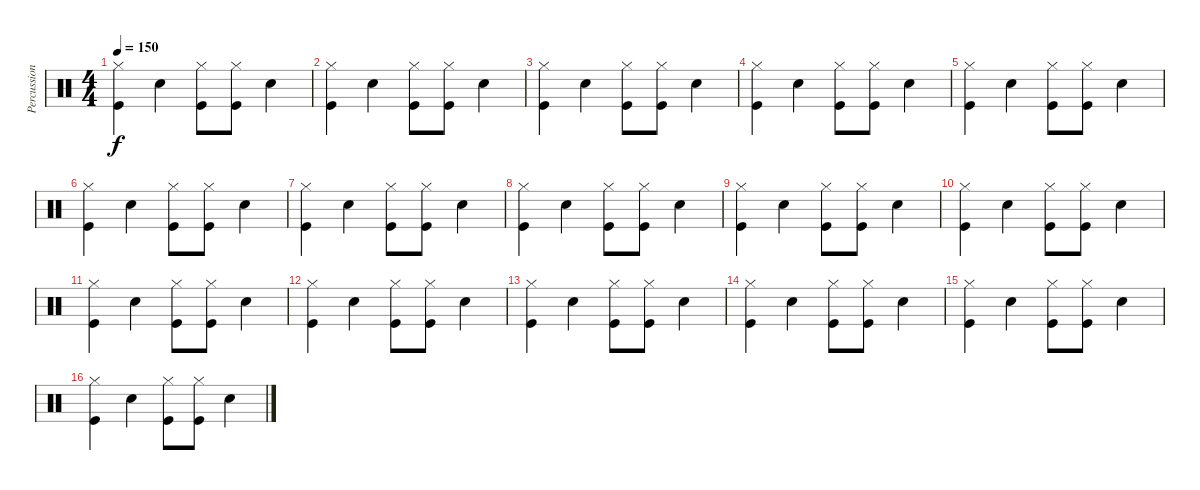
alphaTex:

\track ("Percussion" "Percussion") {instrument percussion}
\staff {score}
\articulation defaults
\ts (4 4)
\tempo 150
\clef neutral
\ks c
("Hi-Hat (closed)" "Kick (hit)").4{dy f} "Snare (hit) 2".4 ("Hi-Hat (closed)" "Kick (hit)").8 ("Hi-Hat (closed)" "Kick (hit)").8 "Snare (hit) 2".4 |
("Hi-Hat (closed)" "Kick (hit)").4 "Snare (hit) 2".4 ("Hi-Hat (closed)" "Kick (hit)").8 ("Hi-Hat (closed)" "Kick (hit)").8 "Snare (hit) 2".4 |
("Hi-Hat (closed)" "Kick (hit)").4 "Snare (hit) 2".4 ("Hi-Hat (closed)" "Kick (hit)").8 ("Hi-Hat (closed)" "Kick (hit)").8 "Snare (hit) 2".4 |
("Hi-Hat (closed)" "Kick (hit)").4 "Snare (hit) 2".4 ("Hi-Hat (closed)" "Kick (hit)").8 ("Hi-Hat (closed)" "Kick (hit)").8 "Snare (hit) 2".4 |
("Hi-Hat (closed)" "Kick (hit)").4 "Snare (hit) 2".4 ("Hi-Hat (closed)" "Kick (hit)").8 ("Hi-Hat (closed)" "Kick (hit)").8 "Snare (hit) 2".4 |
("Hi-Hat (closed)" "Kick (hit)").4 "Snare (hit) 2".4 ("Hi-Hat (closed)" "Kick (hit)").8 ("Hi-Hat (closed)" "Kick (hit)").8 "Snare (hit) 2".4 |
("Hi-Hat (closed)" "Kick (hit)").4 "Snare (hit) 2".4 ("Hi-Hat (closed)" "Kick (hit)").8 ("Hi-Hat (closed)" "Kick (hit)").8 "Snare (hit) 2".4 |
("Hi-Hat (closed)" "Kick (hit)").4 "Snare (hit) 2".4 ("Hi-Hat (closed)" "Kick (hit)").8 ("Hi-Hat (closed)" "Kick (hit)").8 "Snare (hit) 2".4 |
("Hi-Hat (closed)" "Kick (hit)").4 "Snare (hit) 2".4 ("Hi-Hat (closed)" "Kick (hit)").8 ("Hi-Hat (closed)" "Kick (hit)").8 "Snare (hit) 2".4 |
("Hi-Hat (closed)" "Kick (hit)").4 "Snare (hit) 2".4 ("Hi-Hat (closed)" "Kick (hit)").8 ("Hi-Hat (closed)" "Kick (hit)").8 "Snare (hit) 2".4 |
("Hi-Hat (closed)" "Kick (hit)").4 "Snare (hit) 2".4 ("Hi-Hat (closed)" "Kick (hit)").8 ("Hi-Hat (closed)" "Kick (hit)").8 "Snare (hit) 2".4 |
("Hi-Hat (closed)" "Kick (hit)").4 "Snare (hit) 2".4 ("Hi-Hat (closed)" "Kick (hit)").8 ("Hi-Hat (closed)" "Kick (hit)").8 "Snare (hit) 2".4 |
("Hi-Hat (closed)" "Kick (hit)").4 "Snare (hit) 2".4 ("Hi-Hat (closed)" "Kick (hit)").8 ("Hi-Hat (closed)" "Kick (hit)").8 "Snare (hit) 2".4 |
("Hi-Hat (closed)" "Kick (hit)").4 "Snare (hit) 2".4 ("Hi-Hat (closed)" "Kick (hit)").8 ("Hi-Hat (closed)" "Kick (hit)").8 "Snare (hit) 2".4 |
("Hi-Hat (closed)" "Kick (hit)").4 "Snare (hit) 2".4 ("Hi-Hat (closed)" "Kick (hit)").8 ("Hi-Hat (closed)" "Kick (hit)").8 "Snare (hit) 2".4 |
("Hi-Hat (closed)" "Kick (hit)").4 "Snare (hit) 2".4 ("Hi-Hat (closed)" "Kick (hit)").8 ("Hi-Hat (closed)" "Kick (hit)").8 "Snare (hit) 2".4
